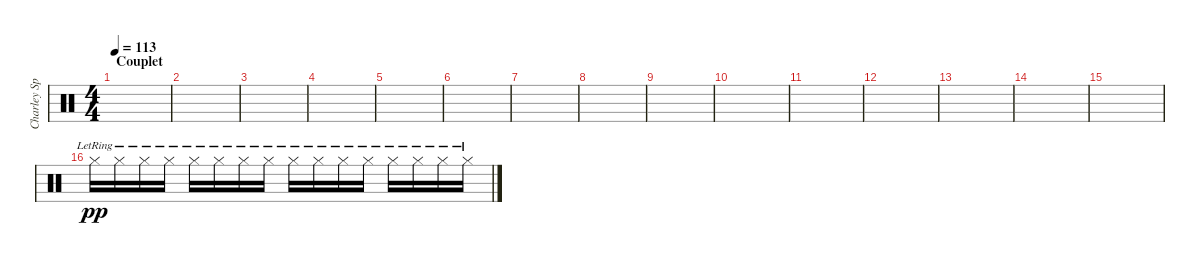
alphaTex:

\track ("Charley Spec." "Charley Sp") {instrument percussion}
\staff {score}
\articulation defaults
\ts (4 4)
\section ("" "Couplet")
\tempo 113
\clef neutral
\ks c
|
|
|
|
|
|
|
|
|
|
|
|
|
|
|
"Hi-Hat (closed)"{lr}.16{dy pp} "Hi-Hat (closed)"{lr}.16 "Hi-Hat (closed)"{lr}.16 "Hi-Hat (closed)"{lr}.16 "Hi-Hat (closed)"{lr}.16 "Hi-Hat (closed)"{lr}.16 "Hi-Hat (closed)"{lr}.16 "Hi-Hat (closed)"{lr}.16 "Hi-Hat (closed)"{lr}.16 "Hi-Hat (closed)"{lr}.16 "Hi-Hat (closed)"{lr}.16 "Hi-Hat (closed)"{lr}.16 "Hi-Hat (closed)"{lr}.16 "Hi-Hat (closed)"{lr}.16 "Hi-Hat (closed)"{lr}.16 "Hi-Hat (closed)"{lr}.16
